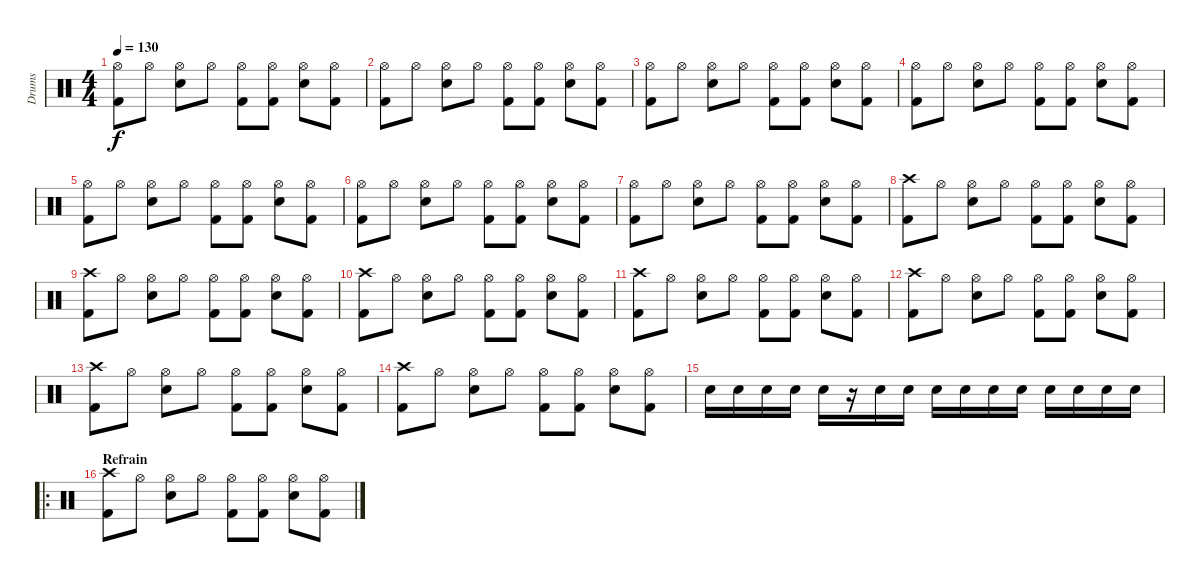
\track ("Drums" "Drums") {instrument percussion}
\staff {score}
\articulation defaults
\ts (4 4)
\tempo 130
\clef neutral
\ks c
("Hi-Hat (open)" "Kick (hit) 2").8{dy f} "Hi-Hat (open)".8 ("Hi-Hat (open)" "Electric Snare (hit)").8 "Hi-Hat (open)".8 ("Hi-Hat (open)" "Kick (hit) 2").8 ("Hi-Hat (open)" "Kick (hit) 2").8 ("Hi-Hat (open)" "Electric Snare (hit)").8 ("Hi-Hat (open)" "Kick (hit) 2").8 |
("Hi-Hat (open)" "Kick (hit) 2").8 "Hi-Hat (open)".8 ("Hi-Hat (open)" "Electric Snare (hit)").8 "Hi-Hat (open)".8 ("Hi-Hat (open)" "Kick (hit) 2").8 ("Hi-Hat (open)" "Kick (hit) 2").8 ("Hi-Hat (open)" "Electric Snare (hit)").8 ("Hi-Hat (open)" "Kick (hit) 2").8 |
("Hi-Hat (open)" "Kick (hit) 2").8 "Hi-Hat (open)".8 ("Hi-Hat (open)" "Electric Snare (hit)").8 "Hi-Hat (open)".8 ("Hi-Hat (open)" "Kick (hit) 2").8 ("Hi-Hat (open)" "Kick (hit) 2").8 ("Hi-Hat (open)" "Electric Snare (hit)").8 ("Hi-Hat (open)" "Kick (hit) 2").8 |
("Hi-Hat (open)" "Kick (hit) 2").8 "Hi-Hat (open)".8 ("Hi-Hat (open)" "Electric Snare (hit)").8 "Hi-Hat (open)".8 ("Hi-Hat (open)" "Kick (hit) 2").8 ("Hi-Hat (open)" "Kick (hit) 2").8 ("Hi-Hat (open)" "Electric Snare (hit)").8 ("Hi-Hat (open)" "Kick (hit) 2").8 |
("Hi-Hat (open)" "Kick (hit) 2").8 "Hi-Hat (open)".8 ("Hi-Hat (open)" "Electric Snare (hit)").8 "Hi-Hat (open)".8 ("Hi-Hat (open)" "Kick (hit) 2").8 ("Hi-Hat (open)" "Kick (hit) 2").8 ("Hi-Hat (open)" "Electric Snare (hit)").8 ("Hi-Hat (open)" "Kick (hit) 2").8 |
("Hi-Hat (open)" "Kick (hit) 2").8 "Hi-Hat (open)".8 ("Hi-Hat (open)" "Electric Snare (hit)").8 "Hi-Hat (open)".8 ("Hi-Hat (open)" "Kick (hit) 2").8 ("Hi-Hat (open)" "Kick (hit) 2").8 ("Hi-Hat (open)" "Electric Snare (hit)").8 ("Hi-Hat (open)" "Kick (hit) 2").8 |
("Hi-Hat (open)" "Kick (hit) 2").8 "Hi-Hat (open)".8 ("Hi-Hat (open)" "Electric Snare (hit)").8 "Hi-Hat (open)".8 ("Hi-Hat (open)" "Kick (hit) 2").8 ("Hi-Hat (open)" "Kick (hit) 2").8 ("Hi-Hat (open)" "Electric Snare (hit)").8 ("Hi-Hat (open)" "Kick (hit) 2").8 |
("Crash high (hit)" "Kick (hit) 2").8 "Hi-Hat (open)".8 ("Hi-Hat (open)" "Electric Snare (hit)").8 "Hi-Hat (open)".8 ("Hi-Hat (open)" "Kick (hit) 2").8 ("Hi-Hat (open)" "Kick (hit) 2").8 ("Hi-Hat (open)" "Electric Snare (hit)").8 ("Hi-Hat (open)" "Kick (hit) 2").8 |
("Crash high (hit)" "Kick (hit) 2").8 "Hi-Hat (open)".8 ("Hi-Hat (open)" "Electric Snare (hit)").8 "Hi-Hat (open)".8 ("Hi-Hat (open)" "Kick (hit) 2").8 ("Hi-Hat (open)" "Kick (hit) 2").8 ("Hi-Hat (open)" "Electric Snare (hit)").8 ("Hi-Hat (open)" "Kick (hit) 2").8 |
("Crash high (hit)" "Kick (hit) 2").8 "Hi-Hat (open)".8 ("Hi-Hat (open)" "Electric Snare (hit)").8 "Hi-Hat (open)".8 ("Hi-Hat (open)" "Kick (hit) 2").8 ("Hi-Hat (open)" "Kick (hit) 2").8 ("Hi-Hat (open)" "Electric Snare (hit)").8 ("Hi-Hat (open)" "Kick (hit) 2").8 |
("Crash high (hit)" "Kick (hit) 2").8 "Hi-Hat (open)".8 ("Hi-Hat (open)" "Electric Snare (hit)").8 "Hi-Hat (open)".8 ("Hi-Hat (open)" "Kick (hit) 2").8 ("Hi-Hat (open)" "Kick (hit) 2").8 ("Hi-Hat (open)" "Electric Snare (hit)").8 ("Hi-Hat (open)" "Kick (hit) 2").8 |
("Crash high (hit)" "Kick (hit) 2").8 "Hi-Hat (open)".8 ("Hi-Hat (open)" "Electric Snare (hit)").8 "Hi-Hat (open)".8 ("Hi-Hat (open)" "Kick (hit) 2").8 ("Hi-Hat (open)" "Kick (hit) 2").8 ("Hi-Hat (open)" "Electric Snare (hit)").8 ("Hi-Hat (open)" "Kick (hit) 2").8 |
("Crash high (hit)" "Kick (hit) 2").8 "Hi-Hat (open)".8 ("Hi-Hat (open)" "Electric Snare (hit)").8 "Hi-Hat (open)".8 ("Hi-Hat (open)" "Kick (hit) 2").8 ("Hi-Hat (open)" "Kick (hit) 2").8 ("Hi-Hat (open)" "Electric Snare (hit)").8 ("Hi-Hat (open)" "Kick (hit) 2").8 |
("Crash high (hit)" "Kick (hit) 2").8 "Hi-Hat (open)".8 ("Hi-Hat (open)" "Electric Snare (hit)").8 "Hi-Hat (open)".8 ("Hi-Hat (open)" "Kick (hit) 2").8 ("Hi-Hat (open)" "Kick (hit) 2").8 ("Hi-Hat (open)" "Electric Snare (hit)").8 ("Hi-Hat (open)" "Kick (hit) 2").8 |
"Electric Snare (hit)".16 "Electric Snare (hit)".16 "Electric Snare (hit)".16 "Electric Snare (hit)".16 "Electric Snare (hit)".16 r.16 "Electric Snare (hit)".16 "Electric Snare (hit)".16 "Electric Snare (hit)".16 "Electric Snare (hit)".16 "Electric Snare (hit)".16 "Electric Snare (hit)".16 "Electric Snare (hit)".16 "Electric Snare (hit)".16 "Electric Snare (hit)".16 "Electric Snare (hit)".16 |
\ro
\section ("" "Refrain")
("Crash high (hit)" "Kick (hit) 2").8 "Hi-Hat (open)".8 ("Hi-Hat (open)" "Electric Snare (hit)").8 "Hi-Hat (open)".8 ("Hi-Hat (open)" "Kick (hit) 2").8 ("Hi-Hat (open)" "Kick (hit) 2").8 ("Hi-Hat (open)" "Electric Snare (hit)").8 ("Hi-Hat (open)" "Kick (hit) 2").8
